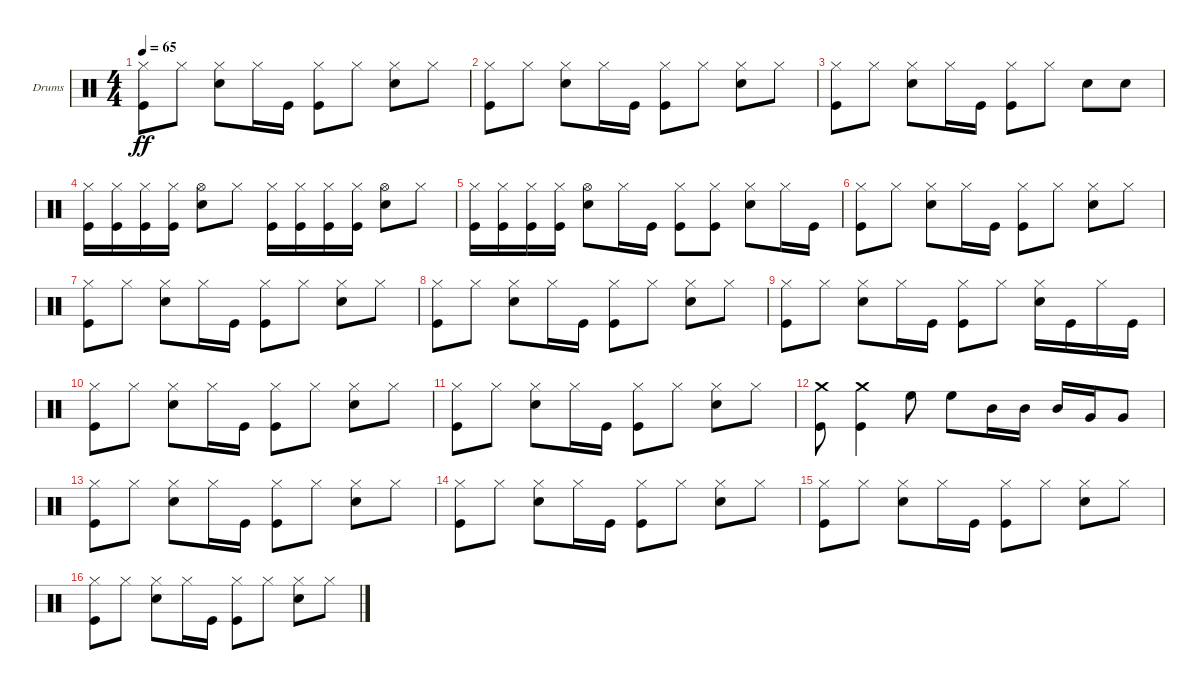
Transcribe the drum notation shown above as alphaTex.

\bracketExtendMode groupsimilarinstruments
\firstSystemTrackNameOrientation horizontal
\otherSystemsTrackNameOrientation horizontal
\track ("Drumkit" "Drums") {instrument percussion}
\staff {score}
\articulation defaults
\ts (4 4)
\tempo 65
\clef neutral
\scale
0.333333
\ks c
("Hi-Hat (closed)" "Kick (hit)").8{dy ff} "Hi-Hat (closed)".8 ("Snare (hit) 2" "Hi-Hat (closed)").8 "Hi-Hat (closed)".16 "Kick (hit)".16 ("Hi-Hat (closed)" "Kick (hit)").8 "Hi-Hat (closed)".8 ("Hi-Hat (closed)" "Snare (hit) 2").8 "Hi-Hat (closed)".8 |
\scale
0.333333 ("Hi-Hat (closed)" "Kick (hit)").8 "Hi-Hat (closed)".8 ("Snare (hit) 2" "Hi-Hat (closed)").8 "Hi-Hat (closed)".16 "Kick (hit)".16 ("Hi-Hat (closed)" "Kick (hit)").8 "Hi-Hat (closed)".8 ("Hi-Hat (closed)" "Snare (hit) 2").8 "Hi-Hat (closed)".8 |
\scale
0.333333 ("Hi-Hat (closed)" "Kick (hit)").8 "Hi-Hat (closed)".8 ("Snare (hit) 2" "Hi-Hat (closed)").8 "Hi-Hat (closed)".16 "Kick (hit)".16 ("Hi-Hat (closed)" "Kick (hit)").8 "Hi-Hat (closed)".8 "Snare (hit) 2".8 "Snare (hit) 2".8 |
\scale
0.333333 ("Kick (hit)" "Hi-Hat (closed)").16 ("Kick (hit)" "Hi-Hat (closed)").16 ("Kick (hit)" "Hi-Hat (closed)").16 ("Kick (hit)" "Hi-Hat (closed)").16 ("Hi-Hat (open)" "Snare (hit) 2").8 "Hi-Hat (closed)".8 ("Kick (hit)" "Hi-Hat (closed)").16 ("Kick (hit)" "Hi-Hat (closed)").16 ("Kick (hit)" "Hi-Hat (closed)").16 ("Kick (hit)" "Hi-Hat (closed)").16 ("Hi-Hat (open)" "Snare (hit) 2").8 "Hi-Hat (closed)".8 |
\scale
0.333333 ("Kick (hit)" "Hi-Hat (closed)").16 ("Kick (hit)" "Hi-Hat (closed)").16 ("Kick (hit)" "Hi-Hat (closed)").16 ("Kick (hit)" "Hi-Hat (closed)").16 ("Hi-Hat (open)" "Snare (hit) 2").8 "Hi-Hat (closed)".16 "Kick (hit)".16 ("Hi-Hat (closed)" "Kick (hit)").8 ("Hi-Hat (closed)" "Kick (hit)").8 ("Snare (hit) 2" "Hi-Hat (closed)").8 "Hi-Hat (closed)".16 "Kick (hit)".16 |
\scale
0.333333 ("Hi-Hat (closed)" "Kick (hit)").8 "Hi-Hat (closed)".8 ("Snare (hit) 2" "Hi-Hat (closed)").8 "Hi-Hat (closed)".16 "Kick (hit)".16 ("Hi-Hat (closed)" "Kick (hit)").8 "Hi-Hat (closed)".8 ("Hi-Hat (closed)" "Snare (hit) 2").8 "Hi-Hat (closed)".8 |
\scale
0.333333 ("Hi-Hat (closed)" "Kick (hit)").8 "Hi-Hat (closed)".8 ("Snare (hit) 2" "Hi-Hat (closed)").8 "Hi-Hat (closed)".16 "Kick (hit)".16 ("Hi-Hat (closed)" "Kick (hit)").8 "Hi-Hat (closed)".8 ("Hi-Hat (closed)" "Snare (hit) 2").8 "Hi-Hat (closed)".8 |
\scale
0.333333 ("Hi-Hat (closed)" "Kick (hit)").8 "Hi-Hat (closed)".8 ("Snare (hit) 2" "Hi-Hat (closed)").8 "Hi-Hat (closed)".16 "Kick (hit)".16 ("Hi-Hat (closed)" "Kick (hit)").8 "Hi-Hat (closed)".8 ("Hi-Hat (closed)" "Snare (hit) 2").8 "Hi-Hat (closed)".8 |
\scale
0.333333 ("Hi-Hat (closed)" "Kick (hit)").8 "Hi-Hat (closed)".8 ("Snare (hit) 2" "Hi-Hat (closed)").8 "Hi-Hat (closed)".16 "Kick (hit)".16 ("Hi-Hat (closed)" "Kick (hit)").8 "Hi-Hat (closed)".8 ("Hi-Hat (closed)" "Snare (hit) 2").16 "Kick (hit)".16 "Hi-Hat (closed)".16 "Kick (hit)".16 |
\scale
0.333333 ("Hi-Hat (closed)" "Kick (hit)").8 "Hi-Hat (closed)".8 ("Snare (hit) 2" "Hi-Hat (closed)").8 "Hi-Hat (closed)".16 "Kick (hit)".16 ("Hi-Hat (closed)" "Kick (hit)").8 "Hi-Hat (closed)".8 ("Hi-Hat (closed)" "Snare (hit) 2").8 "Hi-Hat (closed)".8 |
\scale
0.333333 ("Hi-Hat (closed)" "Kick (hit)").8 "Hi-Hat (closed)".8 ("Snare (hit) 2" "Hi-Hat (closed)").8 "Hi-Hat (closed)".16 "Kick (hit)".16 ("Hi-Hat (closed)" "Kick (hit)").8 "Hi-Hat (closed)".8 ("Hi-Hat (closed)" "Snare (hit) 2").8 "Hi-Hat (closed)".8 |
\scale
0.333333 ("Crash medium (hit)" "Kick (hit)").8 ("Crash medium (hit)" "Kick (hit)").4 "High Floor Tom (hit)".8 "High Floor Tom (hit)".8 "Mid Tom (hit)".16 "Mid Tom (hit)".16 "Mid Tom (hit)".16 "Very Low Tom (hit)".16 "Very Low Tom (hit)".8 |
\scale
0.333333 ("Hi-Hat (closed)" "Kick (hit)").8 "Hi-Hat (closed)".8 ("Snare (hit) 2" "Hi-Hat (closed)").8 "Hi-Hat (closed)".16 "Kick (hit)".16 ("Hi-Hat (closed)" "Kick (hit)").8 "Hi-Hat (closed)".8 ("Hi-Hat (closed)" "Snare (hit) 2").8 "Hi-Hat (closed)".8 |
\scale
0.333333 ("Hi-Hat (closed)" "Kick (hit)").8 "Hi-Hat (closed)".8 ("Snare (hit) 2" "Hi-Hat (closed)").8 "Hi-Hat (closed)".16 "Kick (hit)".16 ("Hi-Hat (closed)" "Kick (hit)").8 "Hi-Hat (closed)".8 ("Hi-Hat (closed)" "Snare (hit) 2").8 "Hi-Hat (closed)".8 |
\scale
0.333333 ("Hi-Hat (closed)" "Kick (hit)").8 "Hi-Hat (closed)".8 ("Snare (hit) 2" "Hi-Hat (closed)").8 "Hi-Hat (closed)".16 "Kick (hit)".16 ("Hi-Hat (closed)" "Kick (hit)").8 "Hi-Hat (closed)".8 ("Hi-Hat (closed)" "Snare (hit) 2").8 "Hi-Hat (closed)".8 |
\scale
0.333333 ("Hi-Hat (closed)" "Kick (hit)").8 "Hi-Hat (closed)".8 ("Snare (hit) 2" "Hi-Hat (closed)").8 "Hi-Hat (closed)".16 "Kick (hit)".16 ("Hi-Hat (closed)" "Kick (hit)").8 "Hi-Hat (closed)".8 ("Hi-Hat (closed)" "Snare (hit) 2").8 "Hi-Hat (closed)".8
